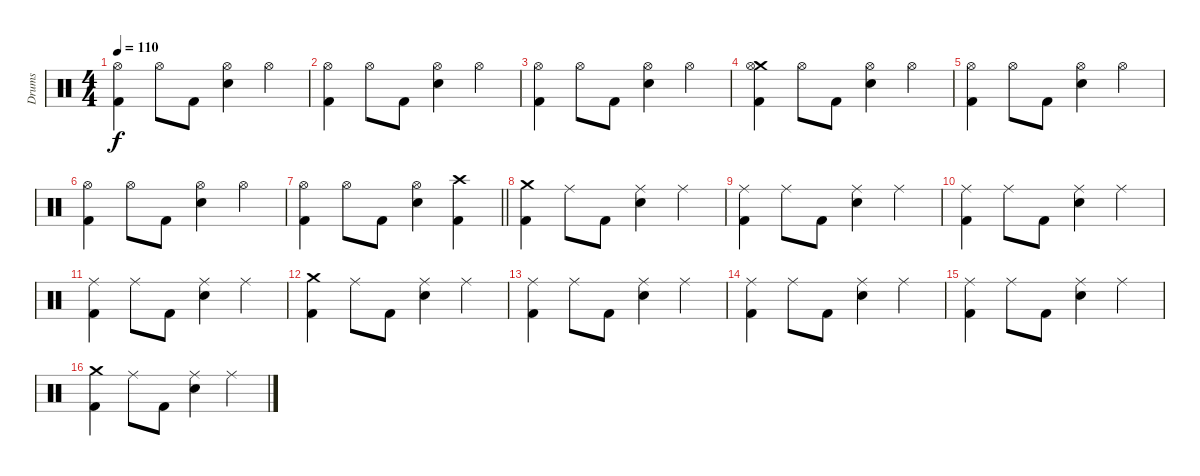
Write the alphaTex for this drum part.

\track ("Drums" "Drums") {instrument percussion}
\staff {score}
\articulation defaults
\ts (4 4)
\tempo 110
\clef neutral
\ks c
("Hi-Hat (open)" "Kick (hit) 2").4{dy f} "Hi-Hat (open)".8 "Kick (hit) 2".8 ("Hi-Hat (open)" "Snare (hit) 2").4 "Hi-Hat (open)".4 |
("Hi-Hat (open)" "Kick (hit) 2").4 "Hi-Hat (open)".8 "Kick (hit) 2".8 ("Hi-Hat (open)" "Snare (hit) 2").4 "Hi-Hat (open)".4 |
("Hi-Hat (open)" "Kick (hit) 2").4 "Hi-Hat (open)".8 "Kick (hit) 2".8 ("Hi-Hat (open)" "Snare (hit) 2").4 "Hi-Hat (open)".4 |
("Crash medium (hit)" "Hi-Hat (open)" "Kick (hit) 2").4 "Hi-Hat (open)".8 "Kick (hit) 2".8 ("Hi-Hat (open)" "Snare (hit) 2").4 "Hi-Hat (open)".4 |
("Hi-Hat (open)" "Kick (hit) 2").4 "Hi-Hat (open)".8 "Kick (hit) 2".8 ("Hi-Hat (open)" "Snare (hit) 2").4 "Hi-Hat (open)".4 |
("Hi-Hat (open)" "Kick (hit) 2").4 "Hi-Hat (open)".8 "Kick (hit) 2".8 ("Hi-Hat (open)" "Snare (hit) 2").4 "Hi-Hat (open)".4 |
\barLineRight lightlight
("Hi-Hat (open)" "Kick (hit) 2").4 "Hi-Hat (open)".8 "Kick (hit) 2".8 ("Hi-Hat (open)" "Snare (hit) 2").4 ("Crash high (hit)" "Kick (hit) 2").4 |
("Crash medium (hit)" "Kick (hit) 2").4 "Ride (middle)".8 "Kick (hit) 2".8 ("Ride (middle)" "Snare (hit) 2").4 "Ride (middle)".4 |
("Ride (middle)" "Kick (hit) 2").4 "Ride (middle)".8 "Kick (hit) 2".8 ("Ride (middle)" "Snare (hit) 2").4 "Ride (middle)".4 |
("Ride (middle)" "Kick (hit) 2").4 "Ride (middle)".8 "Kick (hit) 2".8 ("Ride (middle)" "Snare (hit) 2").4 "Ride (middle)".4 |
("Ride (middle)" "Kick (hit) 2").4 "Ride (middle)".8 "Kick (hit) 2".8 ("Ride (middle)" "Snare (hit) 2").4 "Ride (middle)".4 |
("Crash medium (hit)" "Kick (hit) 2").4 "Ride (middle)".8 "Kick (hit) 2".8 ("Ride (middle)" "Snare (hit) 2").4 "Ride (middle)".4 |
("Ride (middle)" "Kick (hit) 2").4 "Ride (middle)".8 "Kick (hit) 2".8 ("Ride (middle)" "Snare (hit) 2").4 "Ride (middle)".4 |
("Ride (middle)" "Kick (hit) 2").4 "Ride (middle)".8 "Kick (hit) 2".8 ("Ride (middle)" "Snare (hit) 2").4 "Ride (middle)".4 |
("Ride (middle)" "Kick (hit) 2").4 "Ride (middle)".8 "Kick (hit) 2".8 ("Ride (middle)" "Snare (hit) 2").4 "Ride (middle)".4 |
("Crash medium (hit)" "Kick (hit) 2").4 "Ride (middle)".8 "Kick (hit) 2".8 ("Ride (middle)" "Snare (hit) 2").4 "Ride (middle)".4
